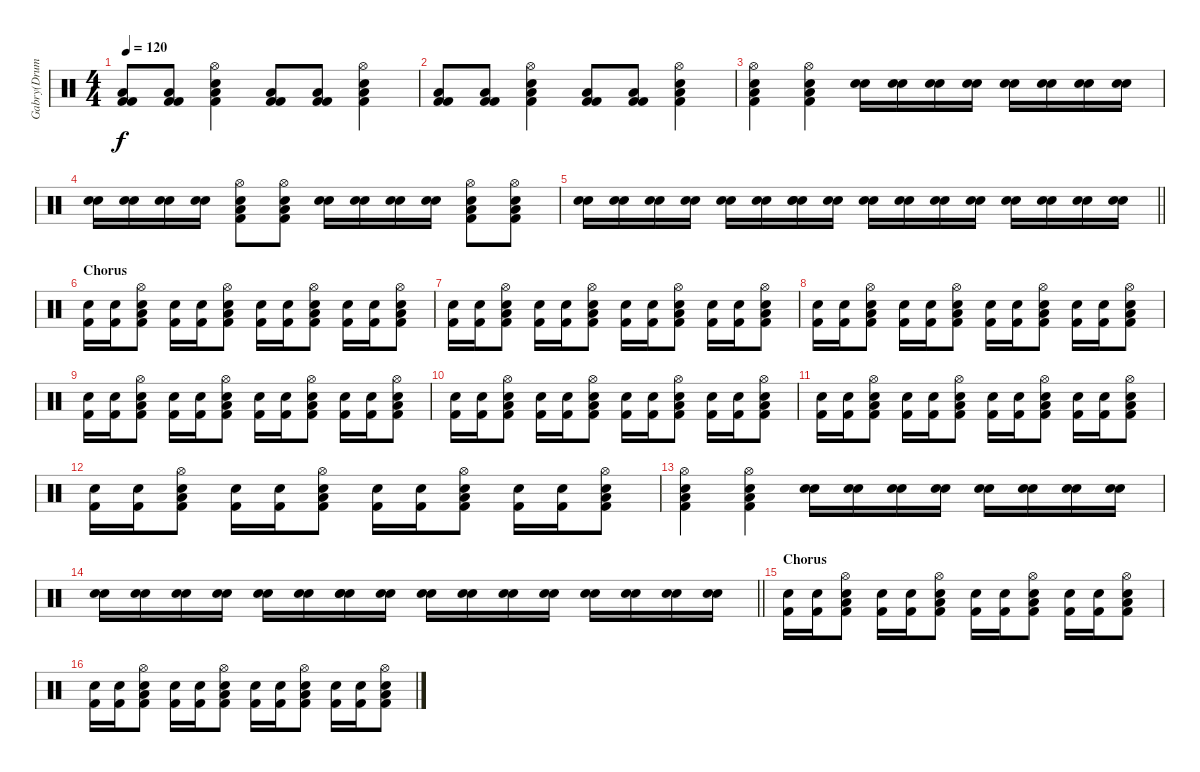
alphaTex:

\track ("Gabry(Drums)" "Gabry(Drum") {instrument percussion}
\staff {score}
\articulation defaults
\ts (4 4)
\tempo 120
\clef neutral
\ks c
("Kick (hit) 2" "Kick (hit) 2" "Low Floor Tom (hit)").8{dy f} ("Kick (hit) 2" "Kick (hit) 2" "Low Floor Tom (hit)").8 ("Kick (hit) 2" "Electric Snare (hit)" "Low Floor Tom (hit)" "Hi-Hat (open)").4 ("Kick (hit) 2" "Kick (hit) 2" "Low Floor Tom (hit)").8 ("Kick (hit) 2" "Kick (hit) 2" "Low Floor Tom (hit)").8 ("Kick (hit) 2" "Electric Snare (hit)" "Low Floor Tom (hit)" "Hi-Hat (open)").4 |
("Kick (hit) 2" "Kick (hit) 2" "Low Floor Tom (hit)").8 ("Kick (hit) 2" "Kick (hit) 2" "Low Floor Tom (hit)").8 ("Kick (hit) 2" "Electric Snare (hit)" "Low Floor Tom (hit)" "Hi-Hat (open)").4 ("Kick (hit) 2" "Kick (hit) 2" "Low Floor Tom (hit)").8 ("Kick (hit) 2" "Kick (hit) 2" "Low Floor Tom (hit)").8 ("Kick (hit) 2" "Electric Snare (hit)" "Low Floor Tom (hit)" "Hi-Hat (open)").4 |
("Kick (hit) 2" "Electric Snare (hit)" "Low Floor Tom (hit)" "Hi-Hat (open)").4 ("Kick (hit) 2" "Electric Snare (hit)" "Low Floor Tom (hit)" "Hi-Hat (open)").4 ("Electric Snare (hit)" "Electric Snare (hit)").16 ("Electric Snare (hit)" "Electric Snare (hit)").16 ("Electric Snare (hit)" "Electric Snare (hit)").16 ("Electric Snare (hit)" "Electric Snare (hit)").16 ("Electric Snare (hit)" "Electric Snare (hit)").16 ("Electric Snare (hit)" "Electric Snare (hit)").16 ("Electric Snare (hit)" "Electric Snare (hit)").16 ("Electric Snare (hit)" "Electric Snare (hit)").16 |
("Electric Snare (hit)" "Electric Snare (hit)").16 ("Electric Snare (hit)" "Electric Snare (hit)").16 ("Electric Snare (hit)" "Electric Snare (hit)").16 ("Electric Snare (hit)" "Electric Snare (hit)").16 ("Kick (hit) 2" "Electric Snare (hit)" "Low Floor Tom (hit)" "Hi-Hat (open)").8 ("Kick (hit) 2" "Electric Snare (hit)" "Low Floor Tom (hit)" "Hi-Hat (open)").8 ("Electric Snare (hit)" "Electric Snare (hit)").16 ("Electric Snare (hit)" "Electric Snare (hit)").16 ("Electric Snare (hit)" "Electric Snare (hit)").16 ("Electric Snare (hit)" "Electric Snare (hit)").16 ("Kick (hit) 2" "Electric Snare (hit)" "Low Floor Tom (hit)" "Hi-Hat (open)").8 ("Kick (hit) 2" "Electric Snare (hit)" "Low Floor Tom (hit)" "Hi-Hat (open)").8 |
\barLineRight lightlight
("Electric Snare (hit)" "Electric Snare (hit)").16 ("Electric Snare (hit)" "Electric Snare (hit)").16 ("Electric Snare (hit)" "Electric Snare (hit)").16 ("Electric Snare (hit)" "Electric Snare (hit)").16 ("Electric Snare (hit)" "Electric Snare (hit)").16 ("Electric Snare (hit)" "Electric Snare (hit)").16 ("Electric Snare (hit)" "Electric Snare (hit)" "Electric Snare (hit)").16 ("Electric Snare (hit)" "Electric Snare (hit)").16 ("Electric Snare (hit)" "Electric Snare (hit)").16 ("Electric Snare (hit)" "Electric Snare (hit)").16 ("Electric Snare (hit)" "Electric Snare (hit)").16 ("Electric Snare (hit)" "Electric Snare (hit)").16 ("Electric Snare (hit)" "Electric Snare (hit)").16 ("Electric Snare (hit)" "Electric Snare (hit)").16 ("Electric Snare (hit)" "Electric Snare (hit)").16 ("Electric Snare (hit)" "Electric Snare (hit)").16 |
\section ("" "Chorus")
("Kick (hit) 2" "Electric Snare (hit)").16 ("Kick (hit) 2" "Electric Snare (hit)").16 ("Kick (hit) 2" "Electric Snare (hit)" "Low Floor Tom (hit)" "Hi-Hat (open)").8 ("Kick (hit) 2" "Electric Snare (hit)").16 ("Kick (hit) 2" "Electric Snare (hit)").16 ("Kick (hit) 2" "Electric Snare (hit)" "Low Floor Tom (hit)" "Hi-Hat (open)").8 ("Kick (hit) 2" "Electric Snare (hit)").16 ("Kick (hit) 2" "Electric Snare (hit)").16 ("Kick (hit) 2" "Electric Snare (hit)" "Low Floor Tom (hit)" "Hi-Hat (open)").8 ("Kick (hit) 2" "Electric Snare (hit)").16 ("Kick (hit) 2" "Electric Snare (hit)").16 ("Kick (hit) 2" "Electric Snare (hit)" "Low Floor Tom (hit)" "Hi-Hat (open)").8 |
("Kick (hit) 2" "Electric Snare (hit)").16 ("Kick (hit) 2" "Electric Snare (hit)").16 ("Kick (hit) 2" "Electric Snare (hit)" "Low Floor Tom (hit)" "Hi-Hat (open)").8 ("Kick (hit) 2" "Electric Snare (hit)").16 ("Kick (hit) 2" "Electric Snare (hit)").16 ("Kick (hit) 2" "Electric Snare (hit)" "Low Floor Tom (hit)" "Hi-Hat (open)").8 ("Kick (hit) 2" "Electric Snare (hit)").16 ("Kick (hit) 2" "Electric Snare (hit)").16 ("Kick (hit) 2" "Electric Snare (hit)" "Low Floor Tom (hit)" "Hi-Hat (open)").8 ("Kick (hit) 2" "Electric Snare (hit)").16 ("Kick (hit) 2" "Electric Snare (hit)").16 ("Kick (hit) 2" "Electric Snare (hit)" "Low Floor Tom (hit)" "Hi-Hat (open)").8 |
("Kick (hit) 2" "Electric Snare (hit)").16 ("Kick (hit) 2" "Electric Snare (hit)").16 ("Kick (hit) 2" "Electric Snare (hit)" "Low Floor Tom (hit)" "Hi-Hat (open)").8 ("Kick (hit) 2" "Electric Snare (hit)").16 ("Kick (hit) 2" "Electric Snare (hit)").16 ("Kick (hit) 2" "Electric Snare (hit)" "Low Floor Tom (hit)" "Hi-Hat (open)").8 ("Kick (hit) 2" "Electric Snare (hit)").16 ("Kick (hit) 2" "Electric Snare (hit)").16 ("Kick (hit) 2" "Electric Snare (hit)" "Low Floor Tom (hit)" "Hi-Hat (open)").8 ("Kick (hit) 2" "Electric Snare (hit)").16 ("Kick (hit) 2" "Electric Snare (hit)").16 ("Kick (hit) 2" "Electric Snare (hit)" "Low Floor Tom (hit)" "Hi-Hat (open)").8 |
("Kick (hit) 2" "Electric Snare (hit)").16 ("Kick (hit) 2" "Electric Snare (hit)").16 ("Kick (hit) 2" "Electric Snare (hit)" "Low Floor Tom (hit)" "Hi-Hat (open)").8 ("Kick (hit) 2" "Electric Snare (hit)").16 ("Kick (hit) 2" "Electric Snare (hit)").16 ("Kick (hit) 2" "Electric Snare (hit)" "Low Floor Tom (hit)" "Hi-Hat (open)").8 ("Kick (hit) 2" "Electric Snare (hit)").16 ("Kick (hit) 2" "Electric Snare (hit)").16 ("Kick (hit) 2" "Electric Snare (hit)" "Low Floor Tom (hit)" "Hi-Hat (open)").8 ("Kick (hit) 2" "Electric Snare (hit)").16 ("Kick (hit) 2" "Electric Snare (hit)").16 ("Kick (hit) 2" "Electric Snare (hit)" "Low Floor Tom (hit)" "Hi-Hat (open)").8 |
("Kick (hit) 2" "Electric Snare (hit)").16 ("Kick (hit) 2" "Electric Snare (hit)").16 ("Kick (hit) 2" "Electric Snare (hit)" "Low Floor Tom (hit)" "Hi-Hat (open)").8 ("Kick (hit) 2" "Electric Snare (hit)").16 ("Kick (hit) 2" "Electric Snare (hit)").16 ("Kick (hit) 2" "Electric Snare (hit)" "Low Floor Tom (hit)" "Hi-Hat (open)").8 ("Kick (hit) 2" "Electric Snare (hit)").16 ("Kick (hit) 2" "Electric Snare (hit)").16 ("Kick (hit) 2" "Electric Snare (hit)" "Low Floor Tom (hit)" "Hi-Hat (open)").8 ("Kick (hit) 2" "Electric Snare (hit)").16 ("Kick (hit) 2" "Electric Snare (hit)").16 ("Kick (hit) 2" "Electric Snare (hit)" "Low Floor Tom (hit)" "Hi-Hat (open)").8 |
("Kick (hit) 2" "Electric Snare (hit)").16 ("Kick (hit) 2" "Electric Snare (hit)").16 ("Kick (hit) 2" "Electric Snare (hit)" "Low Floor Tom (hit)" "Hi-Hat (open)").8 ("Kick (hit) 2" "Electric Snare (hit)").16 ("Kick (hit) 2" "Electric Snare (hit)").16 ("Kick (hit) 2" "Electric Snare (hit)" "Low Floor Tom (hit)" "Hi-Hat (open)").8 ("Kick (hit) 2" "Electric Snare (hit)").16 ("Kick (hit) 2" "Electric Snare (hit)").16 ("Kick (hit) 2" "Electric Snare (hit)" "Low Floor Tom (hit)" "Hi-Hat (open)").8 ("Kick (hit) 2" "Electric Snare (hit)").16 ("Kick (hit) 2" "Electric Snare (hit)").16 ("Kick (hit) 2" "Electric Snare (hit)" "Low Floor Tom (hit)" "Hi-Hat (open)").8 |
("Kick (hit) 2" "Electric Snare (hit)").16 ("Kick (hit) 2" "Electric Snare (hit)").16 ("Kick (hit) 2" "Electric Snare (hit)" "Low Floor Tom (hit)" "Hi-Hat (open)").8 ("Kick (hit) 2" "Electric Snare (hit)").16 ("Kick (hit) 2" "Electric Snare (hit)").16 ("Kick (hit) 2" "Electric Snare (hit)" "Low Floor Tom (hit)" "Hi-Hat (open)").8 ("Kick (hit) 2" "Electric Snare (hit)").16 ("Kick (hit) 2" "Electric Snare (hit)").16 ("Kick (hit) 2" "Electric Snare (hit)" "Low Floor Tom (hit)" "Hi-Hat (open)").8 ("Kick (hit) 2" "Electric Snare (hit)").16 ("Kick (hit) 2" "Electric Snare (hit)").16 ("Kick (hit) 2" "Electric Snare (hit)" "Low Floor Tom (hit)" "Hi-Hat (open)").8 |
("Kick (hit) 2" "Electric Snare (hit)" "Low Floor Tom (hit)" "Hi-Hat (open)").4 ("Kick (hit) 2" "Electric Snare (hit)" "Low Floor Tom (hit)" "Hi-Hat (open)").4 ("Electric Snare (hit)" "Electric Snare (hit)").16 ("Electric Snare (hit)" "Electric Snare (hit)").16 ("Electric Snare (hit)" "Electric Snare (hit)").16 ("Electric Snare (hit)" "Electric Snare (hit)").16 ("Electric Snare (hit)" "Electric Snare (hit)").16 ("Electric Snare (hit)" "Electric Snare (hit)").16 ("Electric Snare (hit)" "Electric Snare (hit)").16 ("Electric Snare (hit)" "Electric Snare (hit)").16 |
\barLineRight lightlight
("Electric Snare (hit)" "Electric Snare (hit)").16 ("Electric Snare (hit)" "Electric Snare (hit)").16 ("Electric Snare (hit)" "Electric Snare (hit)").16 ("Electric Snare (hit)" "Electric Snare (hit)").16 ("Electric Snare (hit)" "Electric Snare (hit)").16 ("Electric Snare (hit)" "Electric Snare (hit)").16 ("Electric Snare (hit)" "Electric Snare (hit)" "Electric Snare (hit)").16 ("Electric Snare (hit)" "Electric Snare (hit)").16 ("Electric Snare (hit)" "Electric Snare (hit)").16 ("Electric Snare (hit)" "Electric Snare (hit)").16 ("Electric Snare (hit)" "Electric Snare (hit)").16 ("Electric Snare (hit)" "Electric Snare (hit)").16 ("Electric Snare (hit)" "Electric Snare (hit)").16 ("Electric Snare (hit)" "Electric Snare (hit)").16 ("Electric Snare (hit)" "Electric Snare (hit)").16 ("Electric Snare (hit)" "Electric Snare (hit)").16 |
\section ("" "Chorus")
("Kick (hit) 2" "Electric Snare (hit)").16 ("Kick (hit) 2" "Electric Snare (hit)").16 ("Kick (hit) 2" "Electric Snare (hit)" "Low Floor Tom (hit)" "Hi-Hat (open)").8 ("Kick (hit) 2" "Electric Snare (hit)").16 ("Kick (hit) 2" "Electric Snare (hit)").16 ("Kick (hit) 2" "Electric Snare (hit)" "Low Floor Tom (hit)" "Hi-Hat (open)").8 ("Kick (hit) 2" "Electric Snare (hit)").16 ("Kick (hit) 2" "Electric Snare (hit)").16 ("Kick (hit) 2" "Electric Snare (hit)" "Low Floor Tom (hit)" "Hi-Hat (open)").8 ("Kick (hit) 2" "Electric Snare (hit)").16 ("Kick (hit) 2" "Electric Snare (hit)").16 ("Kick (hit) 2" "Electric Snare (hit)" "Low Floor Tom (hit)" "Hi-Hat (open)").8 |
("Kick (hit) 2" "Electric Snare (hit)").16 ("Kick (hit) 2" "Electric Snare (hit)").16 ("Kick (hit) 2" "Electric Snare (hit)" "Low Floor Tom (hit)" "Hi-Hat (open)").8 ("Kick (hit) 2" "Electric Snare (hit)").16 ("Kick (hit) 2" "Electric Snare (hit)").16 ("Kick (hit) 2" "Electric Snare (hit)" "Low Floor Tom (hit)" "Hi-Hat (open)").8 ("Kick (hit) 2" "Electric Snare (hit)").16 ("Kick (hit) 2" "Electric Snare (hit)").16 ("Kick (hit) 2" "Electric Snare (hit)" "Low Floor Tom (hit)" "Hi-Hat (open)").8 ("Kick (hit) 2" "Electric Snare (hit)").16 ("Kick (hit) 2" "Electric Snare (hit)").16 ("Kick (hit) 2" "Electric Snare (hit)" "Low Floor Tom (hit)" "Hi-Hat (open)").8
